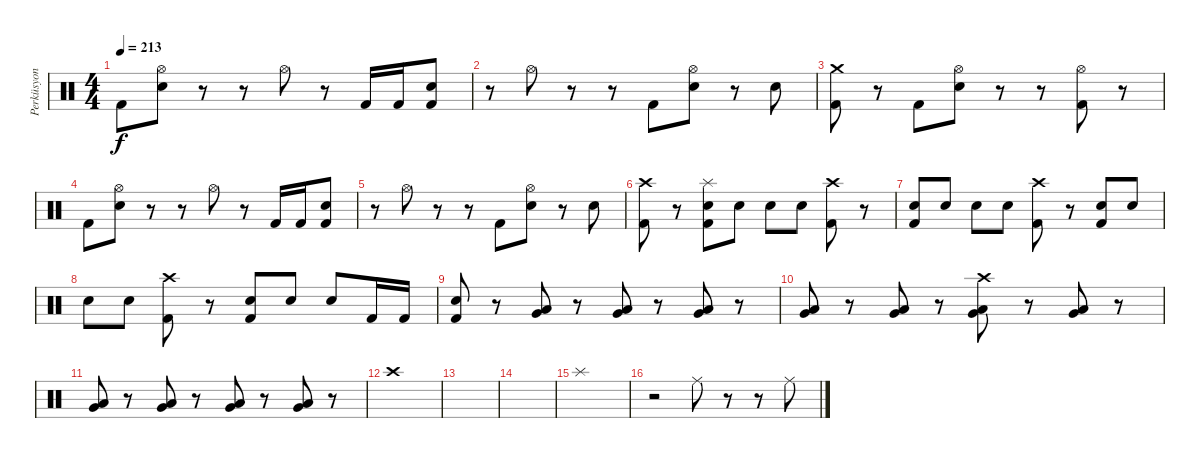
\track ("Perküsyon" "Perküsyon") {instrument percussion}
\staff {score}
\articulation defaults
\ts (4 4)
\tempo 213
\clef neutral
\ks c "Kick (hit) 2".8{dy f}
("Hi-Hat (open)" "Electric Snare (hit)").8 r.8 r.8 "Hi-Hat (open)".8 r.8 "Kick (hit) 2".16 "Kick (hit) 2".16 ("Electric Snare (hit)" "Kick (hit) 2").8 |
r.8 "Hi-Hat (open)".8 r.8 r.8 "Kick (hit) 2".8 ("Hi-Hat (open)" "Electric Snare (hit)").8 r.8 "Electric Snare (hit)".8 |
("Crash medium (hit)" "Kick (hit) 2").8 r.8 "Kick (hit) 2".8 ("Hi-Hat (open)" "Electric Snare (hit)").8 r.8 r.8 ("Hi-Hat (open)" "Kick (hit) 2").8 r.8 |
"Kick (hit) 2".8 ("Hi-Hat (open)" "Electric Snare (hit)").8 r.8 r.8 "Hi-Hat (open)".8 r.8 "Kick (hit) 2".16 "Kick (hit) 2".16 ("Electric Snare (hit)" "Kick (hit) 2").8 |
r.8 "Hi-Hat (open)".8 r.8 r.8 "Kick (hit) 2".8 ("Hi-Hat (open)" "Electric Snare (hit)").8 r.8 "Electric Snare (hit)".8 |
("Crash high (hit)" "Kick (hit) 2").8 r.8 ("Splash (hit)" "Electric Snare (hit)" "Kick (hit) 2").8 "Electric Snare (hit)".8 "Electric Snare (hit)".8 "Electric Snare (hit)".8 ("Crash high (hit)" "Kick (hit) 2").8 r.8 |
("Electric Snare (hit)" "Kick (hit) 2").8 "Electric Snare (hit)".8 "Electric Snare (hit)".8 "Electric Snare (hit)".8 ("Crash high (hit)" "Kick (hit) 2").8 r.8 ("Electric Snare (hit)" "Kick (hit) 2").8 "Electric Snare (hit)".8 |
"Electric Snare (hit)".8 "Electric Snare (hit)".8 ("Crash high (hit)" "Kick (hit) 2").8 r.8 ("Electric Snare (hit)" "Kick (hit) 2").8 "Electric Snare (hit)".8 "Electric Snare (hit)".8 "Kick (hit) 2".16 "Kick (hit) 2".16 |
("Electric Snare (hit)" "Kick (hit) 2").8 r.8 ("Low Floor Tom (hit)" "Very Low Tom (hit)").8 r.8 ("Low Floor Tom (hit)" "Very Low Tom (hit)").8 r.8 ("Very Low Tom (hit)" "Low Floor Tom (hit)").8 r.8 |
("Low Floor Tom (hit)" "Very Low Tom (hit)").8 r.8 ("Low Floor Tom (hit)" "Very Low Tom (hit)").8 r.8 ("Crash high (hit)" "Low Floor Tom (hit)" "Very Low Tom (hit)").8 r.8 ("Low Floor Tom (hit)" "Very Low Tom (hit)").8 r.8 |
("Low Floor Tom (hit)" "Very Low Tom (hit)").8 r.8 ("Low Floor Tom (hit)" "Very Low Tom (hit)").8 r.8 ("Low Floor Tom (hit)" "Very Low Tom (hit)").8 r.8 ("Low Floor Tom (hit)" "Very Low Tom (hit)").8 r.8 |
"Crash high (hit)".1 |
|
|
"Splash (hit)".1 |
r.2 "Ride (middle)".8 r.8 r.8 "Ride (middle)".8
